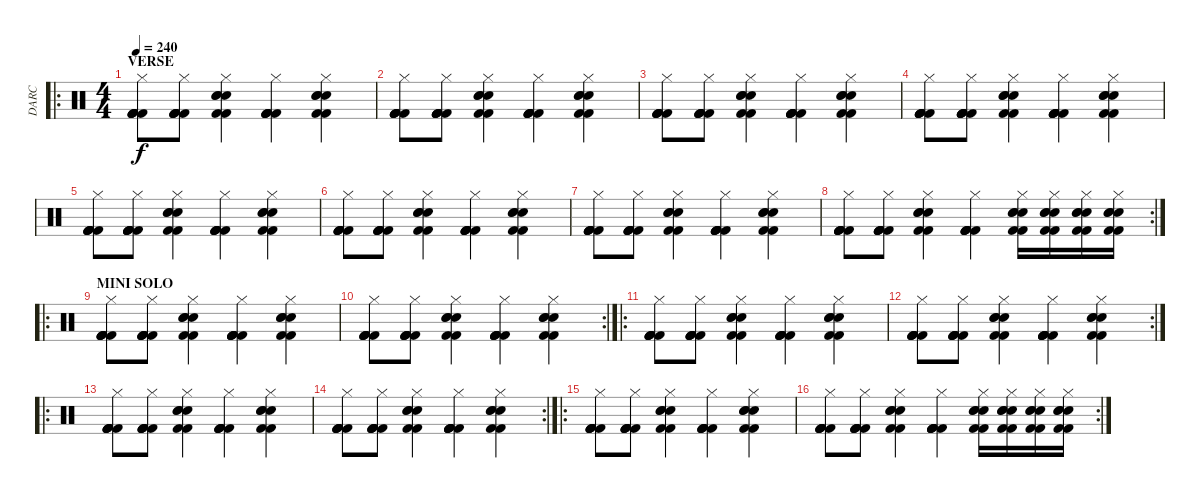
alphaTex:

\track ("DARC" "DARC") {instrument percussion}
\staff {score}
\articulation defaults
\ro
\ts (4 4)
\section ("" "VERSE")
\tempo 240
\clef neutral
\ks c
("Hi-Hat (closed)" "Kick (hit) 2" "Kick (hit) 2" "Kick (hit) 2" "Kick (hit) 2" "Kick (hit) 2").8{dy f} ("Hi-Hat (closed)" "Kick (hit) 2" "Kick (hit) 2" "Kick (hit) 2" "Kick (hit) 2" "Kick (hit) 2").8 ("Hi-Hat (closed)" "Electric Snare (hit)" "Electric Snare (hit)" "Kick (hit) 2" "Kick (hit) 2" "Electric Snare (hit)").4 ("Hi-Hat (closed)" "Kick (hit) 2" "Kick (hit) 2" "Kick (hit) 2" "Kick (hit) 2" "Kick (hit) 2").4 ("Hi-Hat (closed)" "Electric Snare (hit)" "Electric Snare (hit)" "Kick (hit) 2" "Kick (hit) 2" "Electric Snare (hit)").4 |
("Hi-Hat (closed)" "Kick (hit) 2" "Kick (hit) 2" "Kick (hit) 2" "Kick (hit) 2" "Kick (hit) 2").8 ("Hi-Hat (closed)" "Kick (hit) 2" "Kick (hit) 2" "Kick (hit) 2" "Kick (hit) 2" "Kick (hit) 2").8 ("Hi-Hat (closed)" "Electric Snare (hit)" "Electric Snare (hit)" "Kick (hit) 2" "Kick (hit) 2" "Electric Snare (hit)").4 ("Hi-Hat (closed)" "Kick (hit) 2" "Kick (hit) 2" "Kick (hit) 2" "Kick (hit) 2" "Kick (hit) 2").4 ("Hi-Hat (closed)" "Electric Snare (hit)" "Electric Snare (hit)" "Kick (hit) 2" "Kick (hit) 2" "Electric Snare (hit)").4 |
("Hi-Hat (closed)" "Kick (hit) 2" "Kick (hit) 2" "Kick (hit) 2" "Kick (hit) 2" "Kick (hit) 2").8 ("Hi-Hat (closed)" "Kick (hit) 2" "Kick (hit) 2" "Kick (hit) 2" "Kick (hit) 2" "Kick (hit) 2").8 ("Hi-Hat (closed)" "Electric Snare (hit)" "Electric Snare (hit)" "Kick (hit) 2" "Kick (hit) 2" "Electric Snare (hit)").4 ("Hi-Hat (closed)" "Kick (hit) 2" "Kick (hit) 2" "Kick (hit) 2" "Kick (hit) 2" "Kick (hit) 2").4 ("Hi-Hat (closed)" "Electric Snare (hit)" "Electric Snare (hit)" "Kick (hit) 2" "Kick (hit) 2" "Electric Snare (hit)").4 |
("Hi-Hat (closed)" "Kick (hit) 2" "Kick (hit) 2" "Kick (hit) 2" "Kick (hit) 2" "Kick (hit) 2").8 ("Hi-Hat (closed)" "Kick (hit) 2" "Kick (hit) 2" "Kick (hit) 2" "Kick (hit) 2" "Kick (hit) 2").8 ("Hi-Hat (closed)" "Electric Snare (hit)" "Electric Snare (hit)" "Kick (hit) 2" "Kick (hit) 2" "Electric Snare (hit)").4 ("Hi-Hat (closed)" "Kick (hit) 2" "Kick (hit) 2" "Kick (hit) 2" "Kick (hit) 2" "Kick (hit) 2").4 ("Hi-Hat (closed)" "Electric Snare (hit)" "Electric Snare (hit)" "Kick (hit) 2" "Kick (hit) 2" "Electric Snare (hit)").4 |
("Hi-Hat (closed)" "Kick (hit) 2" "Kick (hit) 2" "Kick (hit) 2" "Kick (hit) 2" "Kick (hit) 2").8 ("Hi-Hat (closed)" "Kick (hit) 2" "Kick (hit) 2" "Kick (hit) 2" "Kick (hit) 2" "Kick (hit) 2").8 ("Hi-Hat (closed)" "Electric Snare (hit)" "Electric Snare (hit)" "Kick (hit) 2" "Kick (hit) 2" "Electric Snare (hit)").4 ("Hi-Hat (closed)" "Kick (hit) 2" "Kick (hit) 2" "Kick (hit) 2" "Kick (hit) 2" "Kick (hit) 2").4 ("Hi-Hat (closed)" "Electric Snare (hit)" "Electric Snare (hit)" "Kick (hit) 2" "Kick (hit) 2" "Electric Snare (hit)").4 |
("Hi-Hat (closed)" "Kick (hit) 2" "Kick (hit) 2" "Kick (hit) 2" "Kick (hit) 2" "Kick (hit) 2").8 ("Hi-Hat (closed)" "Kick (hit) 2" "Kick (hit) 2" "Kick (hit) 2" "Kick (hit) 2" "Kick (hit) 2").8 ("Hi-Hat (closed)" "Electric Snare (hit)" "Electric Snare (hit)" "Kick (hit) 2" "Kick (hit) 2" "Electric Snare (hit)").4 ("Hi-Hat (closed)" "Kick (hit) 2" "Kick (hit) 2" "Kick (hit) 2" "Kick (hit) 2" "Kick (hit) 2").4 ("Hi-Hat (closed)" "Electric Snare (hit)" "Electric Snare (hit)" "Kick (hit) 2" "Kick (hit) 2" "Electric Snare (hit)").4 |
("Hi-Hat (closed)" "Kick (hit) 2" "Kick (hit) 2" "Kick (hit) 2" "Kick (hit) 2" "Kick (hit) 2").8 ("Hi-Hat (closed)" "Kick (hit) 2" "Kick (hit) 2" "Kick (hit) 2" "Kick (hit) 2" "Kick (hit) 2").8 ("Hi-Hat (closed)" "Electric Snare (hit)" "Electric Snare (hit)" "Kick (hit) 2" "Kick (hit) 2" "Electric Snare (hit)").4 ("Hi-Hat (closed)" "Kick (hit) 2" "Kick (hit) 2" "Kick (hit) 2" "Kick (hit) 2" "Kick (hit) 2").4 ("Hi-Hat (closed)" "Electric Snare (hit)" "Electric Snare (hit)" "Kick (hit) 2" "Kick (hit) 2" "Electric Snare (hit)").4 |
\rc 2
("Hi-Hat (closed)" "Kick (hit) 2" "Kick (hit) 2" "Kick (hit) 2" "Kick (hit) 2" "Kick (hit) 2").8 ("Hi-Hat (closed)" "Kick (hit) 2" "Kick (hit) 2" "Kick (hit) 2" "Kick (hit) 2" "Kick (hit) 2").8 ("Hi-Hat (closed)" "Electric Snare (hit)" "Electric Snare (hit)" "Kick (hit) 2" "Kick (hit) 2" "Electric Snare (hit)").4 ("Hi-Hat (closed)" "Kick (hit) 2" "Kick (hit) 2" "Kick (hit) 2" "Kick (hit) 2" "Kick (hit) 2").4 ("Hi-Hat (closed)" "Electric Snare (hit)" "Electric Snare (hit)" "Kick (hit) 2" "Kick (hit) 2" "Electric Snare (hit)").16 ("Hi-Hat (closed)" "Electric Snare (hit)" "Electric Snare (hit)" "Kick (hit) 2" "Kick (hit) 2" "Electric Snare (hit)").16 ("Hi-Hat (closed)" "Electric Snare (hit)" "Electric Snare (hit)" "Kick (hit) 2" "Kick (hit) 2" "Electric Snare (hit)").16 ("Hi-Hat (closed)" "Electric Snare (hit)" "Electric Snare (hit)" "Kick (hit) 2" "Kick (hit) 2" "Electric Snare (hit)").16 |
\ro
\section ("" "MINI SOLO")
("Hi-Hat (closed)" "Kick (hit) 2" "Kick (hit) 2" "Kick (hit) 2" "Kick (hit) 2" "Kick (hit) 2").8 ("Hi-Hat (closed)" "Kick (hit) 2" "Kick (hit) 2" "Kick (hit) 2" "Kick (hit) 2" "Kick (hit) 2").8 ("Hi-Hat (closed)" "Electric Snare (hit)" "Electric Snare (hit)" "Kick (hit) 2" "Kick (hit) 2" "Electric Snare (hit)").4 ("Hi-Hat (closed)" "Kick (hit) 2" "Kick (hit) 2" "Kick (hit) 2" "Kick (hit) 2" "Kick (hit) 2").4 ("Hi-Hat (closed)" "Electric Snare (hit)" "Electric Snare (hit)" "Kick (hit) 2" "Kick (hit) 2" "Electric Snare (hit)").4 |
\rc 2
("Hi-Hat (closed)" "Kick (hit) 2" "Kick (hit) 2" "Kick (hit) 2" "Kick (hit) 2" "Kick (hit) 2").8 ("Hi-Hat (closed)" "Kick (hit) 2" "Kick (hit) 2" "Kick (hit) 2" "Kick (hit) 2" "Kick (hit) 2").8 ("Hi-Hat (closed)" "Electric Snare (hit)" "Electric Snare (hit)" "Kick (hit) 2" "Kick (hit) 2" "Electric Snare (hit)").4 ("Hi-Hat (closed)" "Kick (hit) 2" "Kick (hit) 2" "Kick (hit) 2" "Kick (hit) 2" "Kick (hit) 2").4 ("Hi-Hat (closed)" "Electric Snare (hit)" "Electric Snare (hit)" "Kick (hit) 2" "Kick (hit) 2" "Electric Snare (hit)").4 |
\ro
("Hi-Hat (closed)" "Kick (hit) 2" "Kick (hit) 2" "Kick (hit) 2" "Kick (hit) 2" "Kick (hit) 2").8 ("Hi-Hat (closed)" "Kick (hit) 2" "Kick (hit) 2" "Kick (hit) 2" "Kick (hit) 2" "Kick (hit) 2").8 ("Hi-Hat (closed)" "Electric Snare (hit)" "Electric Snare (hit)" "Kick (hit) 2" "Kick (hit) 2" "Electric Snare (hit)").4 ("Hi-Hat (closed)" "Kick (hit) 2" "Kick (hit) 2" "Kick (hit) 2" "Kick (hit) 2" "Kick (hit) 2").4 ("Hi-Hat (closed)" "Electric Snare (hit)" "Electric Snare (hit)" "Kick (hit) 2" "Kick (hit) 2" "Electric Snare (hit)").4 |
\rc 2
("Hi-Hat (closed)" "Kick (hit) 2" "Kick (hit) 2" "Kick (hit) 2" "Kick (hit) 2" "Kick (hit) 2").8 ("Hi-Hat (closed)" "Kick (hit) 2" "Kick (hit) 2" "Kick (hit) 2" "Kick (hit) 2" "Kick (hit) 2").8 ("Hi-Hat (closed)" "Electric Snare (hit)" "Electric Snare (hit)" "Kick (hit) 2" "Kick (hit) 2" "Electric Snare (hit)").4 ("Hi-Hat (closed)" "Kick (hit) 2" "Kick (hit) 2" "Kick (hit) 2" "Kick (hit) 2" "Kick (hit) 2").4 ("Hi-Hat (closed)" "Electric Snare (hit)" "Electric Snare (hit)" "Kick (hit) 2" "Kick (hit) 2" "Electric Snare (hit)").4 |
\ro
("Hi-Hat (closed)" "Kick (hit) 2" "Kick (hit) 2" "Kick (hit) 2" "Kick (hit) 2" "Kick (hit) 2").8 ("Hi-Hat (closed)" "Kick (hit) 2" "Kick (hit) 2" "Kick (hit) 2" "Kick (hit) 2" "Kick (hit) 2").8 ("Hi-Hat (closed)" "Electric Snare (hit)" "Electric Snare (hit)" "Kick (hit) 2" "Kick (hit) 2" "Electric Snare (hit)").4 ("Hi-Hat (closed)" "Kick (hit) 2" "Kick (hit) 2" "Kick (hit) 2" "Kick (hit) 2" "Kick (hit) 2").4 ("Hi-Hat (closed)" "Electric Snare (hit)" "Electric Snare (hit)" "Kick (hit) 2" "Kick (hit) 2" "Electric Snare (hit)").4 |
\rc 2
("Hi-Hat (closed)" "Kick (hit) 2" "Kick (hit) 2" "Kick (hit) 2" "Kick (hit) 2" "Kick (hit) 2").8 ("Hi-Hat (closed)" "Kick (hit) 2" "Kick (hit) 2" "Kick (hit) 2" "Kick (hit) 2" "Kick (hit) 2").8 ("Hi-Hat (closed)" "Electric Snare (hit)" "Electric Snare (hit)" "Kick (hit) 2" "Kick (hit) 2" "Electric Snare (hit)").4 ("Hi-Hat (closed)" "Kick (hit) 2" "Kick (hit) 2" "Kick (hit) 2" "Kick (hit) 2" "Kick (hit) 2").4 ("Hi-Hat (closed)" "Electric Snare (hit)" "Electric Snare (hit)" "Kick (hit) 2" "Kick (hit) 2" "Electric Snare (hit)").4 |
\ro
("Hi-Hat (closed)" "Kick (hit) 2" "Kick (hit) 2" "Kick (hit) 2" "Kick (hit) 2" "Kick (hit) 2").8 ("Hi-Hat (closed)" "Kick (hit) 2" "Kick (hit) 2" "Kick (hit) 2" "Kick (hit) 2" "Kick (hit) 2").8 ("Hi-Hat (closed)" "Electric Snare (hit)" "Electric Snare (hit)" "Kick (hit) 2" "Kick (hit) 2" "Electric Snare (hit)").4 ("Hi-Hat (closed)" "Kick (hit) 2" "Kick (hit) 2" "Kick (hit) 2" "Kick (hit) 2" "Kick (hit) 2").4 ("Hi-Hat (closed)" "Electric Snare (hit)" "Electric Snare (hit)" "Kick (hit) 2" "Kick (hit) 2" "Electric Snare (hit)").4 |
\rc 2
("Hi-Hat (closed)" "Kick (hit) 2" "Kick (hit) 2" "Kick (hit) 2" "Kick (hit) 2" "Kick (hit) 2").8 ("Hi-Hat (closed)" "Kick (hit) 2" "Kick (hit) 2" "Kick (hit) 2" "Kick (hit) 2" "Kick (hit) 2").8 ("Hi-Hat (closed)" "Electric Snare (hit)" "Electric Snare (hit)" "Kick (hit) 2" "Kick (hit) 2" "Electric Snare (hit)").4 ("Hi-Hat (closed)" "Kick (hit) 2" "Kick (hit) 2" "Kick (hit) 2" "Kick (hit) 2" "Kick (hit) 2").4 ("Hi-Hat (closed)" "Electric Snare (hit)" "Electric Snare (hit)" "Kick (hit) 2" "Kick (hit) 2" "Electric Snare (hit)").16 ("Hi-Hat (closed)" "Electric Snare (hit)" "Electric Snare (hit)" "Kick (hit) 2" "Kick (hit) 2" "Electric Snare (hit)").16 ("Hi-Hat (closed)" "Electric Snare (hit)" "Electric Snare (hit)" "Kick (hit) 2" "Kick (hit) 2" "Electric Snare (hit)").16 ("Hi-Hat (closed)" "Electric Snare (hit)" "Electric Snare (hit)" "Kick (hit) 2" "Kick (hit) 2" "Electric Snare (hit)").16
